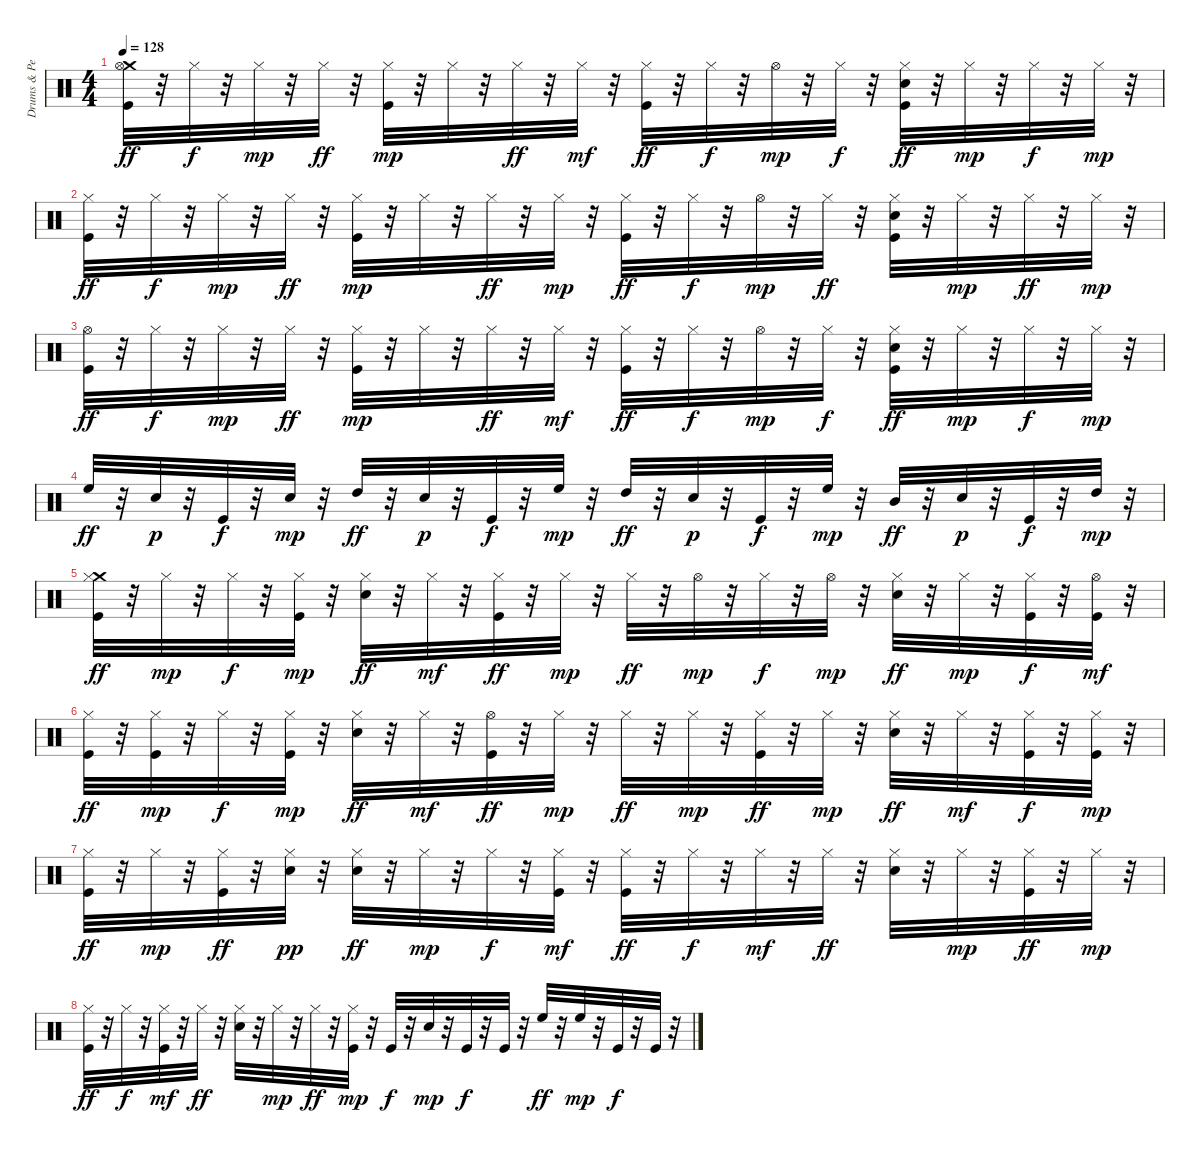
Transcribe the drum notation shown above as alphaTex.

\track ("Drums & Percussion" "Drums & Pe") {instrument percussion}
\staff {score}
\articulation defaults
\ts (4 4)
\tempo 128
\clef neutral
\ks c
("Crash medium (hit)" "Kick (hit)" "Hi-Hat (open)").32{dy ff} r.32 "Hi-Hat (closed)".32{dy f} r.32 "Hi-Hat (closed)".32{dy mp} r.32 "Hi-Hat (closed)".32{dy ff} r.32 ("Kick (hit)" "Hi-Hat (closed)").32{dy mp} r.32 "Hi-Hat (closed)".32 r.32 "Hi-Hat (closed)".32{dy ff} r.32 "Hi-Hat (closed)".32{dy mf} r.32 ("Kick (hit)" "Hi-Hat (closed)").32{dy ff} r.32 "Hi-Hat (closed)".32{dy f} r.32 "Hi-Hat (open)".32{dy mp} r.32 "Hi-Hat (closed)".32{dy f} r.32 ("Kick (hit)" "Hi-Hat (closed)" "Electric Snare (hit)").32{dy ff} r.32 "Hi-Hat (closed)".32{dy mp} r.32 "Hi-Hat (closed)".32{dy f} r.32 "Hi-Hat (closed)".32{dy mp} r.32 |
("Kick (hit)" "Hi-Hat (closed)").32{dy ff} r.32 "Hi-Hat (closed)".32{dy f} r.32 "Hi-Hat (closed)".32{dy mp} r.32 "Hi-Hat (closed)".32{dy ff} r.32 ("Kick (hit)" "Hi-Hat (closed)").32{dy mp} r.32 "Hi-Hat (closed)".32 r.32 "Hi-Hat (closed)".32{dy ff} r.32 "Hi-Hat (closed)".32{dy mp} r.32 ("Kick (hit)" "Hi-Hat (closed)").32{dy ff} r.32 "Hi-Hat (closed)".32{dy f} r.32 "Hi-Hat (open)".32{dy mp} r.32 "Hi-Hat (closed)".32{dy ff} r.32 ("Kick (hit)" "Hi-Hat (closed)" "Electric Snare (hit)").32 r.32 "Hi-Hat (closed)".32{dy mp} r.32 "Hi-Hat (closed)".32{dy ff} r.32 "Hi-Hat (closed)".32{dy mp} r.32 |
("Kick (hit)" "Hi-Hat (open)").32{dy ff} r.32 "Hi-Hat (closed)".32{dy f} r.32 "Hi-Hat (closed)".32{dy mp} r.32 "Hi-Hat (closed)".32{dy ff} r.32 ("Kick (hit)" "Hi-Hat (closed)").32{dy mp} r.32 "Hi-Hat (closed)".32 r.32 "Hi-Hat (closed)".32{dy ff} r.32 "Hi-Hat (closed)".32{dy mf} r.32 ("Kick (hit)" "Hi-Hat (closed)").32{dy ff} r.32 "Hi-Hat (closed)".32{dy f} r.32 "Hi-Hat (open)".32{dy mp} r.32 "Hi-Hat (closed)".32{dy f} r.32 ("Kick (hit)" "Hi-Hat (closed)" "Electric Snare (hit)").32{dy ff} r.32 "Hi-Hat (closed)".32{dy mp} r.32 "Hi-Hat (closed)".32{dy f} r.32 "Hi-Hat (closed)".32{dy mp} r.32 |
"High Floor Tom (hit)".32{dy ff} r.32 "Electric Snare (hit)".32{dy p} r.32 "Kick (hit)".32{dy f} r.32 "Electric Snare (hit)".32{dy mp} r.32 "High Tom (hit)".32{dy ff} r.32 "Electric Snare (hit)".32{dy p} r.32 "Kick (hit)".32{dy f} r.32 "High Floor Tom (hit)".32{dy mp} r.32 "High Tom (hit)".32{dy ff} r.32 "Electric Snare (hit)".32{dy p} r.32 "Kick (hit)".32{dy f} r.32 "High Floor Tom (hit)".32{dy mp} r.32 "Mid Tom (hit)".32{dy ff} r.32 "Electric Snare (hit)".32{dy p} r.32 "Kick (hit)".32{dy f} r.32 "High Tom (hit)".32{dy mp} r.32 |
("Crash medium (hit)" "Kick (hit)" "Hi-Hat (closed)").32{dy ff} r.32 "Hi-Hat (closed)".32{dy mp} r.32 "Hi-Hat (closed)".32{dy f} r.32 ("Kick (hit)" "Hi-Hat (closed)").32{dy mp} r.32 ("Hi-Hat (closed)" "Electric Snare (hit)").32{dy ff} r.32 "Hi-Hat (closed)".32{dy mf} r.32 ("Kick (hit)" "Hi-Hat (closed)").32{dy ff} r.32 "Hi-Hat (closed)".32{dy mp} r.32 "Hi-Hat (closed)".32{dy ff} r.32 "Hi-Hat (open)".32{dy mp} r.32 "Hi-Hat (closed)".32{dy f} r.32 "Hi-Hat (open)".32{dy mp} r.32 ("Hi-Hat (closed)" "Electric Snare (hit)").32{dy ff} r.32 "Hi-Hat (closed)".32{dy mp} r.32 ("Kick (hit)" "Hi-Hat (closed)").32{dy f} r.32 ("Kick (hit)" "Hi-Hat (open)").32{dy mf} r.32 |
("Kick (hit)" "Hi-Hat (closed)").32{dy ff} r.32 ("Kick (hit)" "Hi-Hat (closed)").32{dy mp} r.32 "Hi-Hat (closed)".32{dy f} r.32 ("Kick (hit)" "Hi-Hat (closed)").32{dy mp} r.32 ("Hi-Hat (closed)" "Electric Snare (hit)").32{dy ff} r.32 "Hi-Hat (closed)".32{dy mf} r.32 ("Kick (hit)" "Hi-Hat (open)").32{dy ff} r.32 "Hi-Hat (closed)".32{dy mp} r.32 "Hi-Hat (closed)".32{dy ff} r.32 "Hi-Hat (closed)".32{dy mp} r.32 ("Kick (hit)" "Hi-Hat (closed)").32{dy ff} r.32 "Hi-Hat (closed)".32{dy mp} r.32 ("Hi-Hat (closed)" "Electric Snare (hit)").32{dy ff} r.32 "Hi-Hat (closed)".32{dy mf} r.32 ("Kick (hit)" "Hi-Hat (closed)").32{dy f} r.32 ("Kick (hit)" "Hi-Hat (closed)").32{dy mp} r.32 |
("Kick (hit)" "Hi-Hat (closed)").32{dy ff} r.32 "Hi-Hat (closed)".32{dy mp} r.32 ("Kick (hit)" "Hi-Hat (closed)").32{dy ff} r.32 ("Hi-Hat (closed)" "Electric Snare (hit)").32{dy pp} r.32 ("Hi-Hat (closed)" "Electric Snare (hit)").32{dy ff} r.32 "Hi-Hat (closed)".32{dy mp} r.32 "Hi-Hat (closed)".32{dy f} r.32 ("Kick (hit)" "Hi-Hat (closed)").32{dy mf} r.32 ("Kick (hit)" "Hi-Hat (closed)").32{dy ff} r.32 "Hi-Hat (closed)".32{dy f} r.32 "Hi-Hat (closed)".32{dy mf} r.32 "Hi-Hat (closed)".32{dy ff} r.32 ("Hi-Hat (closed)" "Electric Snare (hit)").32 r.32 "Hi-Hat (closed)".32{dy mp} r.32 ("Kick (hit)" "Hi-Hat (closed)").32{dy ff} r.32 "Hi-Hat (closed)".32{dy mp} r.32 |
("Kick (hit)" "Hi-Hat (closed)").32{dy ff} r.32 "Hi-Hat (closed)".32{dy f} r.32 ("Kick (hit)" "Hi-Hat (closed)").32{dy mf} r.32 "Hi-Hat (closed)".32{dy ff} r.32 ("Hi-Hat (closed)" "Electric Snare (hit)").32 r.32 "Hi-Hat (closed)".32{dy mp} r.32 "Hi-Hat (closed)".32{dy ff} r.32 ("Kick (hit)" "Hi-Hat (closed)").32{dy mp} r.32 "Kick (hit)".32{dy f} r.32 "Electric Snare (hit)".32{dy mp} r.32 "Kick (hit)".32{dy f} r.32 "Kick (hit)".32 r.32 "High Floor Tom (hit)".32{dy ff} r.32 "High Floor Tom (hit)".32{dy mp} r.32 "Kick (hit)".32{dy f} r.32 "Kick (hit)".32 r.32
